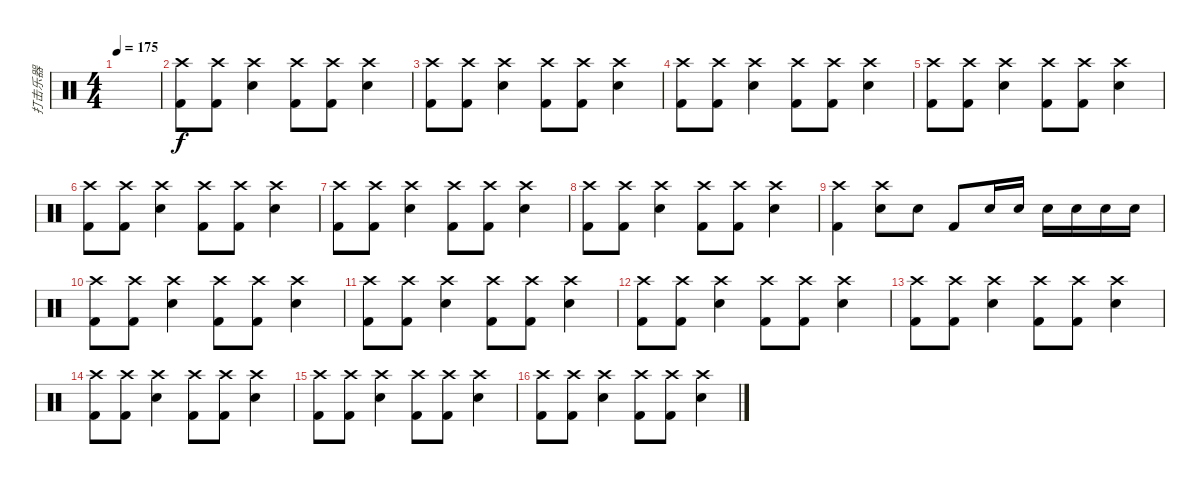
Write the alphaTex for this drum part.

\track ("打击乐器" "打击乐器") {instrument percussion}
\staff {score}
\articulation defaults
\ts (4 4)
\tempo 175
\clef neutral
\ks c
|
("Crash high (hit)" "Kick (hit) 2").8 ("Crash high (hit)" "Kick (hit) 2").8 ("Crash high (hit)" "Electric Snare (hit)").4 ("Crash high (hit)" "Kick (hit) 2").8 ("Crash high (hit)" "Kick (hit) 2").8 ("Crash high (hit)" "Electric Snare (hit)").4 |
("Crash high (hit)" "Kick (hit) 2").8 ("Crash high (hit)" "Kick (hit) 2").8 ("Crash high (hit)" "Electric Snare (hit)").4 ("Crash high (hit)" "Kick (hit) 2").8 ("Crash high (hit)" "Kick (hit) 2").8 ("Crash high (hit)" "Electric Snare (hit)").4 |
("Crash high (hit)" "Kick (hit) 2").8 ("Crash high (hit)" "Kick (hit) 2").8 ("Crash high (hit)" "Electric Snare (hit)").4 ("Crash high (hit)" "Kick (hit) 2").8 ("Crash high (hit)" "Kick (hit) 2").8 ("Crash high (hit)" "Electric Snare (hit)").4 |
("Crash high (hit)" "Kick (hit) 2").8 ("Crash high (hit)" "Kick (hit) 2").8 ("Crash high (hit)" "Electric Snare (hit)").4 ("Crash high (hit)" "Kick (hit) 2").8 ("Crash high (hit)" "Kick (hit) 2").8 ("Crash high (hit)" "Electric Snare (hit)").4 |
("Crash high (hit)" "Kick (hit) 2").8 ("Crash high (hit)" "Kick (hit) 2").8 ("Crash high (hit)" "Electric Snare (hit)").4 ("Crash high (hit)" "Kick (hit) 2").8 ("Crash high (hit)" "Kick (hit) 2").8 ("Crash high (hit)" "Electric Snare (hit)").4 |
("Crash high (hit)" "Kick (hit) 2").8 ("Crash high (hit)" "Kick (hit) 2").8 ("Crash high (hit)" "Electric Snare (hit)").4 ("Crash high (hit)" "Kick (hit) 2").8 ("Crash high (hit)" "Kick (hit) 2").8 ("Crash high (hit)" "Electric Snare (hit)").4 |
("Crash high (hit)" "Kick (hit) 2").8 ("Crash high (hit)" "Kick (hit) 2").8 ("Crash high (hit)" "Electric Snare (hit)").4 ("Crash high (hit)" "Kick (hit) 2").8 ("Crash high (hit)" "Kick (hit) 2").8 ("Crash high (hit)" "Electric Snare (hit)").4 |
("Crash high (hit)" "Kick (hit) 2").4 ("Crash high (hit)" "Electric Snare (hit)").8 "Electric Snare (hit)".8 "Kick (hit) 2".8 "Electric Snare (hit)".16 "Electric Snare (hit)".16 "Electric Snare (hit)".16 "Electric Snare (hit)".16 "Electric Snare (hit)".16 "Electric Snare (hit)".16 |
("Crash high (hit)" "Kick (hit) 2").8 ("Crash high (hit)" "Kick (hit) 2").8 ("Crash high (hit)" "Electric Snare (hit)").4 ("Crash high (hit)" "Kick (hit) 2").8 ("Crash high (hit)" "Kick (hit) 2").8 ("Crash high (hit)" "Electric Snare (hit)").4 |
("Crash high (hit)" "Kick (hit) 2").8 ("Crash high (hit)" "Kick (hit) 2").8 ("Crash high (hit)" "Electric Snare (hit)").4 ("Crash high (hit)" "Kick (hit) 2").8 ("Crash high (hit)" "Kick (hit) 2").8 ("Crash high (hit)" "Electric Snare (hit)").4 |
("Crash high (hit)" "Kick (hit) 2").8 ("Crash high (hit)" "Kick (hit) 2").8 ("Crash high (hit)" "Electric Snare (hit)").4 ("Crash high (hit)" "Kick (hit) 2").8 ("Crash high (hit)" "Kick (hit) 2").8 ("Crash high (hit)" "Electric Snare (hit)").4 |
("Crash high (hit)" "Kick (hit) 2").8 ("Crash high (hit)" "Kick (hit) 2").8 ("Crash high (hit)" "Electric Snare (hit)").4 ("Crash high (hit)" "Kick (hit) 2").8 ("Crash high (hit)" "Kick (hit) 2").8 ("Crash high (hit)" "Electric Snare (hit)").4 |
("Crash high (hit)" "Kick (hit) 2").8 ("Crash high (hit)" "Kick (hit) 2").8 ("Crash high (hit)" "Electric Snare (hit)").4 ("Crash high (hit)" "Kick (hit) 2").8 ("Crash high (hit)" "Kick (hit) 2").8 ("Crash high (hit)" "Electric Snare (hit)").4 |
("Crash high (hit)" "Kick (hit) 2").8 ("Crash high (hit)" "Kick (hit) 2").8 ("Crash high (hit)" "Electric Snare (hit)").4 ("Crash high (hit)" "Kick (hit) 2").8 ("Crash high (hit)" "Kick (hit) 2").8 ("Crash high (hit)" "Electric Snare (hit)").4 |
("Crash high (hit)" "Kick (hit) 2").8 ("Crash high (hit)" "Kick (hit) 2").8 ("Crash high (hit)" "Electric Snare (hit)").4 ("Crash high (hit)" "Kick (hit) 2").8 ("Crash high (hit)" "Kick (hit) 2").8 ("Crash high (hit)" "Electric Snare (hit)").4
